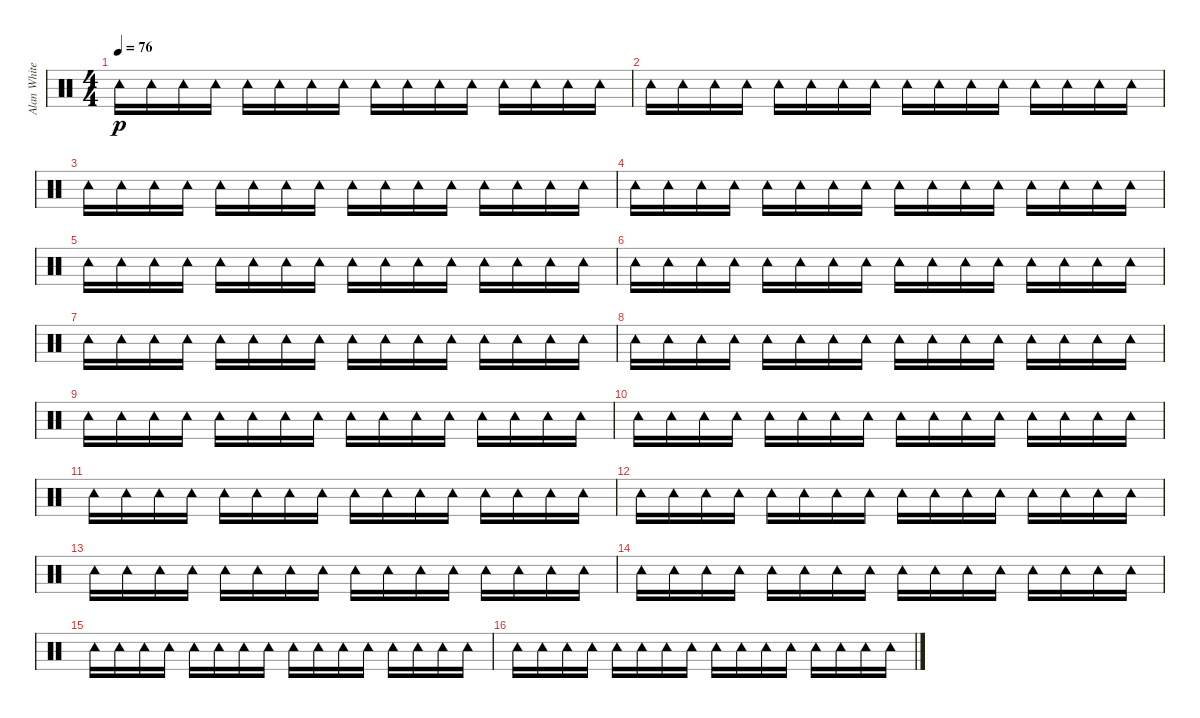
\track ("Alan White" "Alan White") {instrument percussion}
\staff {score}
\articulation defaults
\ts (4 4)
\tempo 76
\clef neutral
\ks c "Tambourine (hit)".16{dy p} "Tambourine (hit)".16 "Tambourine (hit)".16 "Tambourine (hit)".16 "Tambourine (hit)".16 "Tambourine (hit)".16 "Tambourine (hit)".16 "Tambourine (hit)".16 "Tambourine (hit)".16 "Tambourine (hit)".16 "Tambourine (hit)".16 "Tambourine (hit)".16 "Tambourine (hit)".16 "Tambourine (hit)".16 "Tambourine (hit)".16 "Tambourine (hit)".16
|
"Tambourine (hit)".16 "Tambourine (hit)".16 "Tambourine (hit)".16 "Tambourine (hit)".16 "Tambourine (hit)".16 "Tambourine (hit)".16 "Tambourine (hit)".16 "Tambourine (hit)".16 "Tambourine (hit)".16 "Tambourine (hit)".16 "Tambourine (hit)".16 "Tambourine (hit)".16 "Tambourine (hit)".16 "Tambourine (hit)".16 "Tambourine (hit)".16 "Tambourine (hit)".16 |
"Tambourine (hit)".16 "Tambourine (hit)".16 "Tambourine (hit)".16 "Tambourine (hit)".16 "Tambourine (hit)".16 "Tambourine (hit)".16 "Tambourine (hit)".16 "Tambourine (hit)".16 "Tambourine (hit)".16 "Tambourine (hit)".16 "Tambourine (hit)".16 "Tambourine (hit)".16 "Tambourine (hit)".16 "Tambourine (hit)".16 "Tambourine (hit)".16 "Tambourine (hit)".16 |
"Tambourine (hit)".16 "Tambourine (hit)".16 "Tambourine (hit)".16 "Tambourine (hit)".16 "Tambourine (hit)".16 "Tambourine (hit)".16 "Tambourine (hit)".16 "Tambourine (hit)".16 "Tambourine (hit)".16 "Tambourine (hit)".16 "Tambourine (hit)".16 "Tambourine (hit)".16 "Tambourine (hit)".16 "Tambourine (hit)".16 "Tambourine (hit)".16 "Tambourine (hit)".16 |
"Tambourine (hit)".16 "Tambourine (hit)".16 "Tambourine (hit)".16 "Tambourine (hit)".16 "Tambourine (hit)".16 "Tambourine (hit)".16 "Tambourine (hit)".16 "Tambourine (hit)".16 "Tambourine (hit)".16 "Tambourine (hit)".16 "Tambourine (hit)".16 "Tambourine (hit)".16 "Tambourine (hit)".16 "Tambourine (hit)".16 "Tambourine (hit)".16 "Tambourine (hit)".16 |
"Tambourine (hit)".16 "Tambourine (hit)".16 "Tambourine (hit)".16 "Tambourine (hit)".16 "Tambourine (hit)".16 "Tambourine (hit)".16 "Tambourine (hit)".16 "Tambourine (hit)".16 "Tambourine (hit)".16 "Tambourine (hit)".16 "Tambourine (hit)".16 "Tambourine (hit)".16 "Tambourine (hit)".16 "Tambourine (hit)".16 "Tambourine (hit)".16 "Tambourine (hit)".16 |
"Tambourine (hit)".16 "Tambourine (hit)".16 "Tambourine (hit)".16 "Tambourine (hit)".16 "Tambourine (hit)".16 "Tambourine (hit)".16 "Tambourine (hit)".16 "Tambourine (hit)".16 "Tambourine (hit)".16 "Tambourine (hit)".16 "Tambourine (hit)".16 "Tambourine (hit)".16 "Tambourine (hit)".16 "Tambourine (hit)".16 "Tambourine (hit)".16 "Tambourine (hit)".16 |
"Tambourine (hit)".16 "Tambourine (hit)".16 "Tambourine (hit)".16 "Tambourine (hit)".16 "Tambourine (hit)".16 "Tambourine (hit)".16 "Tambourine (hit)".16 "Tambourine (hit)".16 "Tambourine (hit)".16 "Tambourine (hit)".16 "Tambourine (hit)".16 "Tambourine (hit)".16 "Tambourine (hit)".16 "Tambourine (hit)".16 "Tambourine (hit)".16 "Tambourine (hit)".16 |
"Tambourine (hit)".16 "Tambourine (hit)".16 "Tambourine (hit)".16 "Tambourine (hit)".16 "Tambourine (hit)".16 "Tambourine (hit)".16 "Tambourine (hit)".16 "Tambourine (hit)".16 "Tambourine (hit)".16 "Tambourine (hit)".16 "Tambourine (hit)".16 "Tambourine (hit)".16 "Tambourine (hit)".16 "Tambourine (hit)".16 "Tambourine (hit)".16 "Tambourine (hit)".16 |
"Tambourine (hit)".16 "Tambourine (hit)".16 "Tambourine (hit)".16 "Tambourine (hit)".16 "Tambourine (hit)".16 "Tambourine (hit)".16 "Tambourine (hit)".16 "Tambourine (hit)".16 "Tambourine (hit)".16 "Tambourine (hit)".16 "Tambourine (hit)".16 "Tambourine (hit)".16 "Tambourine (hit)".16 "Tambourine (hit)".16 "Tambourine (hit)".16 "Tambourine (hit)".16 |
"Tambourine (hit)".16 "Tambourine (hit)".16 "Tambourine (hit)".16 "Tambourine (hit)".16 "Tambourine (hit)".16 "Tambourine (hit)".16 "Tambourine (hit)".16 "Tambourine (hit)".16 "Tambourine (hit)".16 "Tambourine (hit)".16 "Tambourine (hit)".16 "Tambourine (hit)".16 "Tambourine (hit)".16 "Tambourine (hit)".16 "Tambourine (hit)".16 "Tambourine (hit)".16 |
"Tambourine (hit)".16 "Tambourine (hit)".16 "Tambourine (hit)".16 "Tambourine (hit)".16 "Tambourine (hit)".16 "Tambourine (hit)".16 "Tambourine (hit)".16 "Tambourine (hit)".16 "Tambourine (hit)".16 "Tambourine (hit)".16 "Tambourine (hit)".16 "Tambourine (hit)".16 "Tambourine (hit)".16 "Tambourine (hit)".16 "Tambourine (hit)".16 "Tambourine (hit)".16 |
"Tambourine (hit)".16 "Tambourine (hit)".16 "Tambourine (hit)".16 "Tambourine (hit)".16 "Tambourine (hit)".16 "Tambourine (hit)".16 "Tambourine (hit)".16 "Tambourine (hit)".16 "Tambourine (hit)".16 "Tambourine (hit)".16 "Tambourine (hit)".16 "Tambourine (hit)".16 "Tambourine (hit)".16 "Tambourine (hit)".16 "Tambourine (hit)".16 "Tambourine (hit)".16 |
"Tambourine (hit)".16 "Tambourine (hit)".16 "Tambourine (hit)".16 "Tambourine (hit)".16 "Tambourine (hit)".16 "Tambourine (hit)".16 "Tambourine (hit)".16 "Tambourine (hit)".16 "Tambourine (hit)".16 "Tambourine (hit)".16 "Tambourine (hit)".16 "Tambourine (hit)".16 "Tambourine (hit)".16 "Tambourine (hit)".16 "Tambourine (hit)".16 "Tambourine (hit)".16 |
"Tambourine (hit)".16 "Tambourine (hit)".16 "Tambourine (hit)".16 "Tambourine (hit)".16 "Tambourine (hit)".16 "Tambourine (hit)".16 "Tambourine (hit)".16 "Tambourine (hit)".16 "Tambourine (hit)".16 "Tambourine (hit)".16 "Tambourine (hit)".16 "Tambourine (hit)".16 "Tambourine (hit)".16 "Tambourine (hit)".16 "Tambourine (hit)".16 "Tambourine (hit)".16 |
"Tambourine (hit)".16 "Tambourine (hit)".16 "Tambourine (hit)".16 "Tambourine (hit)".16 "Tambourine (hit)".16 "Tambourine (hit)".16 "Tambourine (hit)".16 "Tambourine (hit)".16 "Tambourine (hit)".16 "Tambourine (hit)".16 "Tambourine (hit)".16 "Tambourine (hit)".16 "Tambourine (hit)".16 "Tambourine (hit)".16 "Tambourine (hit)".16 "Tambourine (hit)".16
